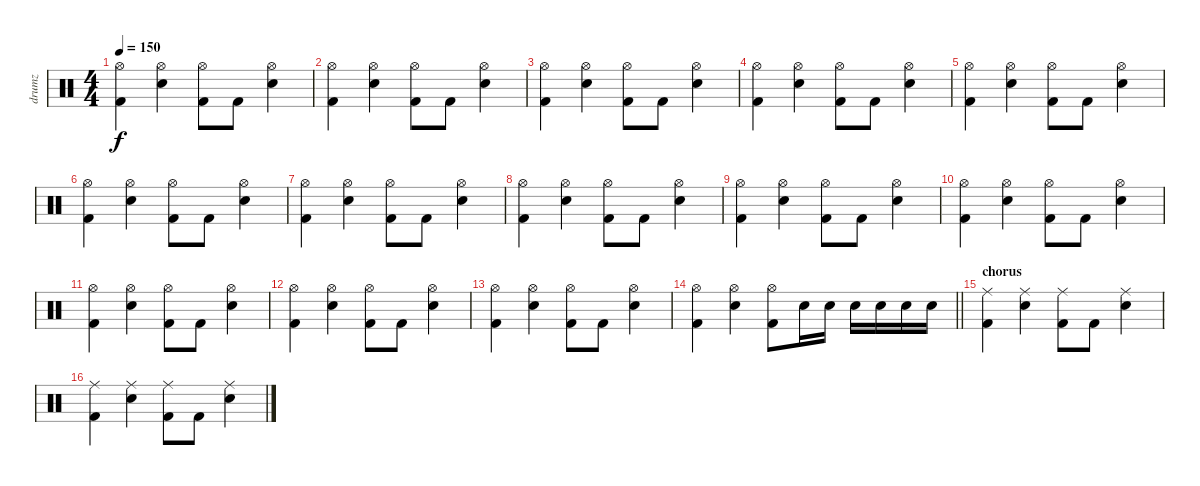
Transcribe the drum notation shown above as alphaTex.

\track ("drumz" "drumz") {instrument percussion}
\staff {score}
\articulation defaults
\ts (4 4)
\tempo 150
\clef neutral
\ks c
("Hi-Hat (open)" "Kick (hit) 2").4{dy f} ("Hi-Hat (open)" "Electric Snare (hit)").4 ("Hi-Hat (open)" "Kick (hit) 2").8 "Kick (hit) 2".8 ("Hi-Hat (open)" "Electric Snare (hit)").4 |
("Hi-Hat (open)" "Kick (hit) 2").4 ("Hi-Hat (open)" "Electric Snare (hit)").4 ("Hi-Hat (open)" "Kick (hit) 2").8 "Kick (hit) 2".8 ("Hi-Hat (open)" "Electric Snare (hit)").4 |
("Hi-Hat (open)" "Kick (hit) 2").4 ("Hi-Hat (open)" "Electric Snare (hit)").4 ("Hi-Hat (open)" "Kick (hit) 2").8 "Kick (hit) 2".8 ("Hi-Hat (open)" "Electric Snare (hit)").4 |
("Hi-Hat (open)" "Kick (hit) 2").4 ("Hi-Hat (open)" "Electric Snare (hit)").4 ("Hi-Hat (open)" "Kick (hit) 2").8 "Kick (hit) 2".8 ("Hi-Hat (open)" "Electric Snare (hit)").4 |
("Hi-Hat (open)" "Kick (hit) 2").4 ("Hi-Hat (open)" "Electric Snare (hit)").4 ("Hi-Hat (open)" "Kick (hit) 2").8 "Kick (hit) 2".8 ("Hi-Hat (open)" "Electric Snare (hit)").4 |
("Hi-Hat (open)" "Kick (hit) 2").4 ("Hi-Hat (open)" "Electric Snare (hit)").4 ("Hi-Hat (open)" "Kick (hit) 2").8 "Kick (hit) 2".8 ("Hi-Hat (open)" "Electric Snare (hit)").4 |
("Hi-Hat (open)" "Kick (hit) 2").4 ("Hi-Hat (open)" "Electric Snare (hit)").4 ("Hi-Hat (open)" "Kick (hit) 2").8 "Kick (hit) 2".8 ("Hi-Hat (open)" "Electric Snare (hit)").4 |
("Hi-Hat (open)" "Kick (hit) 2").4 ("Hi-Hat (open)" "Electric Snare (hit)").4 ("Hi-Hat (open)" "Kick (hit) 2").8 "Kick (hit) 2".8 ("Hi-Hat (open)" "Electric Snare (hit)").4 |
("Hi-Hat (open)" "Kick (hit) 2").4 ("Hi-Hat (open)" "Electric Snare (hit)").4 ("Hi-Hat (open)" "Kick (hit) 2").8 "Kick (hit) 2".8 ("Hi-Hat (open)" "Electric Snare (hit)").4 |
("Hi-Hat (open)" "Kick (hit) 2").4 ("Hi-Hat (open)" "Electric Snare (hit)").4 ("Hi-Hat (open)" "Kick (hit) 2").8 "Kick (hit) 2".8 ("Hi-Hat (open)" "Electric Snare (hit)").4 |
("Hi-Hat (open)" "Kick (hit) 2").4 ("Hi-Hat (open)" "Electric Snare (hit)").4 ("Hi-Hat (open)" "Kick (hit) 2").8 "Kick (hit) 2".8 ("Hi-Hat (open)" "Electric Snare (hit)").4 |
("Hi-Hat (open)" "Kick (hit) 2").4 ("Hi-Hat (open)" "Electric Snare (hit)").4 ("Hi-Hat (open)" "Kick (hit) 2").8 "Kick (hit) 2".8 ("Hi-Hat (open)" "Electric Snare (hit)").4 |
("Hi-Hat (open)" "Kick (hit) 2").4 ("Hi-Hat (open)" "Electric Snare (hit)").4 ("Hi-Hat (open)" "Kick (hit) 2").8 "Kick (hit) 2".8 ("Hi-Hat (open)" "Electric Snare (hit)").4 |
\barLineRight lightlight
("Hi-Hat (open)" "Kick (hit) 2").4 ("Hi-Hat (open)" "Electric Snare (hit)").4 ("Hi-Hat (open)" "Kick (hit) 2").8 "Electric Snare (hit)".16 "Electric Snare (hit)".16 "Electric Snare (hit)".16 "Electric Snare (hit)".16 "Electric Snare (hit)".16 "Electric Snare (hit)".16 |
\section ("" "chorus")
("Ride (middle)" "Kick (hit) 2").4 ("Ride (middle)" "Electric Snare (hit)").4 ("Ride (middle)" "Kick (hit) 2").8 "Kick (hit) 2".8 ("Ride (middle)" "Electric Snare (hit)").4 |
("Ride (middle)" "Kick (hit) 2").4 ("Ride (middle)" "Electric Snare (hit)").4 ("Ride (middle)" "Kick (hit) 2").8 "Kick (hit) 2".8 ("Ride (middle)" "Electric Snare (hit)").4
